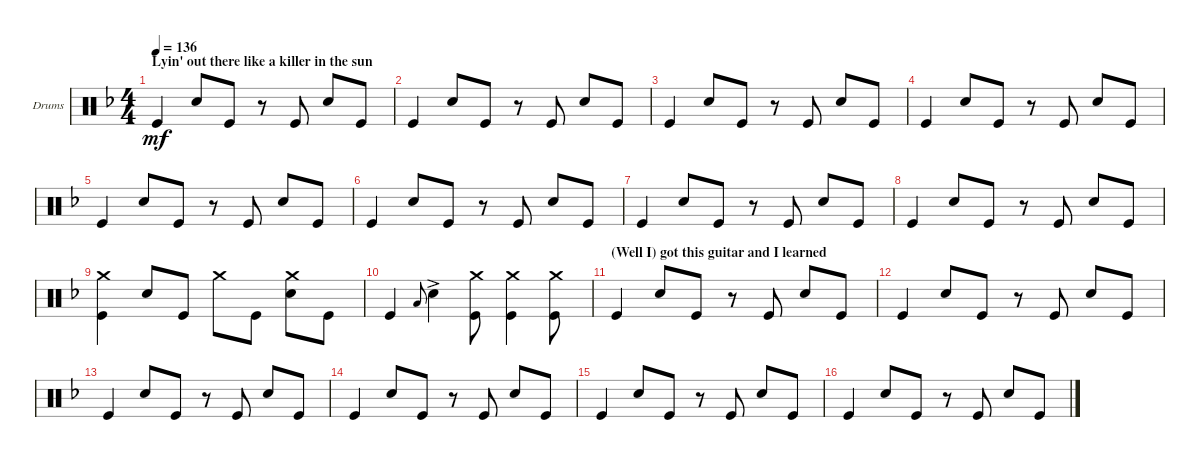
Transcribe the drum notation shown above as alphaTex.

\bracketExtendMode groupsimilarinstruments
\firstSystemTrackNameOrientation horizontal
\otherSystemsTrackNameOrientation horizontal
\track ("Drumkit" "Drums") {instrument percussion}
\staff {score}
\articulation defaults
\ts (4 4)
\section ("" "Lyin' out there like a killer in the sun")
\tempo 136
\clef neutral
\scale
0.333333
\ks f "Kick (hit)".4{dy mf} "Snare (hit) 2".8 "Kick (hit)".8
r.8 "Kick (hit)".8 "Snare (hit) 2".8 "Kick (hit)".8 |
\scale
0.333333 "Kick (hit)".4 "Snare (hit) 2".8 "Kick (hit)".8 r.8 "Kick (hit)".8 "Snare (hit) 2".8 "Kick (hit)".8 |
\scale
0.333333 "Kick (hit)".4 "Snare (hit) 2".8 "Kick (hit)".8 r.8 "Kick (hit)".8 "Snare (hit) 2".8 "Kick (hit)".8 |
\scale
0.333333 "Kick (hit)".4 "Snare (hit) 2".8 "Kick (hit)".8 r.8 "Kick (hit)".8 "Snare (hit) 2".8 "Kick (hit)".8 |
\scale
0.333333 "Kick (hit)".4 "Snare (hit) 2".8 "Kick (hit)".8 r.8 "Kick (hit)".8 "Snare (hit) 2".8 "Kick (hit)".8 |
\scale
0.333333 "Kick (hit)".4 "Snare (hit) 2".8 "Kick (hit)".8 r.8 "Kick (hit)".8 "Snare (hit) 2".8 "Kick (hit)".8 |
\scale
0.333333 "Kick (hit)".4 "Snare (hit) 2".8 "Kick (hit)".8 r.8 "Kick (hit)".8 "Snare (hit) 2".8 "Kick (hit)".8 |
\scale
0.333333 "Kick (hit)".4 "Snare (hit) 2".8 "Kick (hit)".8 r.8 "Kick (hit)".8 "Snare (hit) 2".8 "Kick (hit)".8 |
\scale
0.333333 ("Kick (hit)" "Crash medium (hit)").4 "Snare (hit) 2".8 "Kick (hit)".8 "Crash medium (hit)".8 "Kick (hit)".8 ("Snare (hit) 2" "Crash medium (hit)").8 "Kick (hit)".8 |
\scale
0.333333 "Kick (hit)".4 "Low Tom (hit)".8{gr onbeat} "Snare (hit) 2"{ac}.4 ("Kick (hit)" "Crash medium (hit)").8 ("Kick (hit)" "Crash medium (hit)").4 ("Kick (hit)" "Crash medium (hit)").8 |
\section ("" "(Well I) got this guitar and I learned")
\scale
0.333333 "Kick (hit)".4 "Snare (hit) 2".8 "Kick (hit)".8 r.8 "Kick (hit)".8 "Snare (hit) 2".8 "Kick (hit)".8 |
\scale
0.333333 "Kick (hit)".4 "Snare (hit) 2".8 "Kick (hit)".8 r.8 "Kick (hit)".8 "Snare (hit) 2".8 "Kick (hit)".8 |
\scale
0.333333 "Kick (hit)".4 "Snare (hit) 2".8 "Kick (hit)".8 r.8 "Kick (hit)".8 "Snare (hit) 2".8 "Kick (hit)".8 |
\scale
0.333333 "Kick (hit)".4 "Snare (hit) 2".8 "Kick (hit)".8 r.8 "Kick (hit)".8 "Snare (hit) 2".8 "Kick (hit)".8 |
\scale
0.333333 "Kick (hit)".4 "Snare (hit) 2".8 "Kick (hit)".8 r.8 "Kick (hit)".8 "Snare (hit) 2".8 "Kick (hit)".8 |
\scale
0.333333 "Kick (hit)".4 "Snare (hit) 2".8 "Kick (hit)".8 r.8 "Kick (hit)".8 "Snare (hit) 2".8 "Kick (hit)".8
